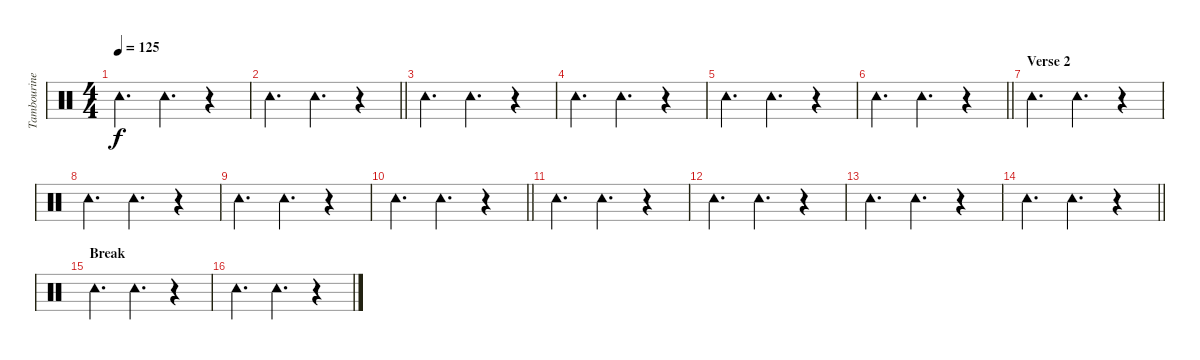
\track ("Tambourine" "Tambourine") {instrument percussion}
\staff {score}
\articulation defaults
\ts (4 4)
\tempo 125
\clef neutral
\ks c "Tambourine (hit)".4{d dy f} "Tambourine (hit)".4{d}
r.4 |
\barLineRight lightlight "Tambourine (hit)".4{d} "Tambourine (hit)".4{d}
r.4 |
"Tambourine (hit)".4{d} "Tambourine (hit)".4{d} r.4 |
"Tambourine (hit)".4{d} "Tambourine (hit)".4{d} r.4 |
"Tambourine (hit)".4{d} "Tambourine (hit)".4{d} r.4 |
\barLineRight lightlight "Tambourine (hit)".4{d} "Tambourine (hit)".4{d}
r.4 |
\section ("" "Verse 2")
"Tambourine (hit)".4{d} "Tambourine (hit)".4{d} r.4 |
"Tambourine (hit)".4{d} "Tambourine (hit)".4{d} r.4 |
"Tambourine (hit)".4{d} "Tambourine (hit)".4{d} r.4 |
\barLineRight lightlight "Tambourine (hit)".4{d} "Tambourine (hit)".4{d}
r.4 |
"Tambourine (hit)".4{d} "Tambourine (hit)".4{d} r.4 |
"Tambourine (hit)".4{d} "Tambourine (hit)".4{d} r.4 |
"Tambourine (hit)".4{d} "Tambourine (hit)".4{d} r.4 |
\barLineRight lightlight "Tambourine (hit)".4{d} "Tambourine (hit)".4{d}
r.4 |
\section ("" "Break")
"Tambourine (hit)".4{d} "Tambourine (hit)".4{d} r.4 |
"Tambourine (hit)".4{d} "Tambourine (hit)".4{d} r.4
